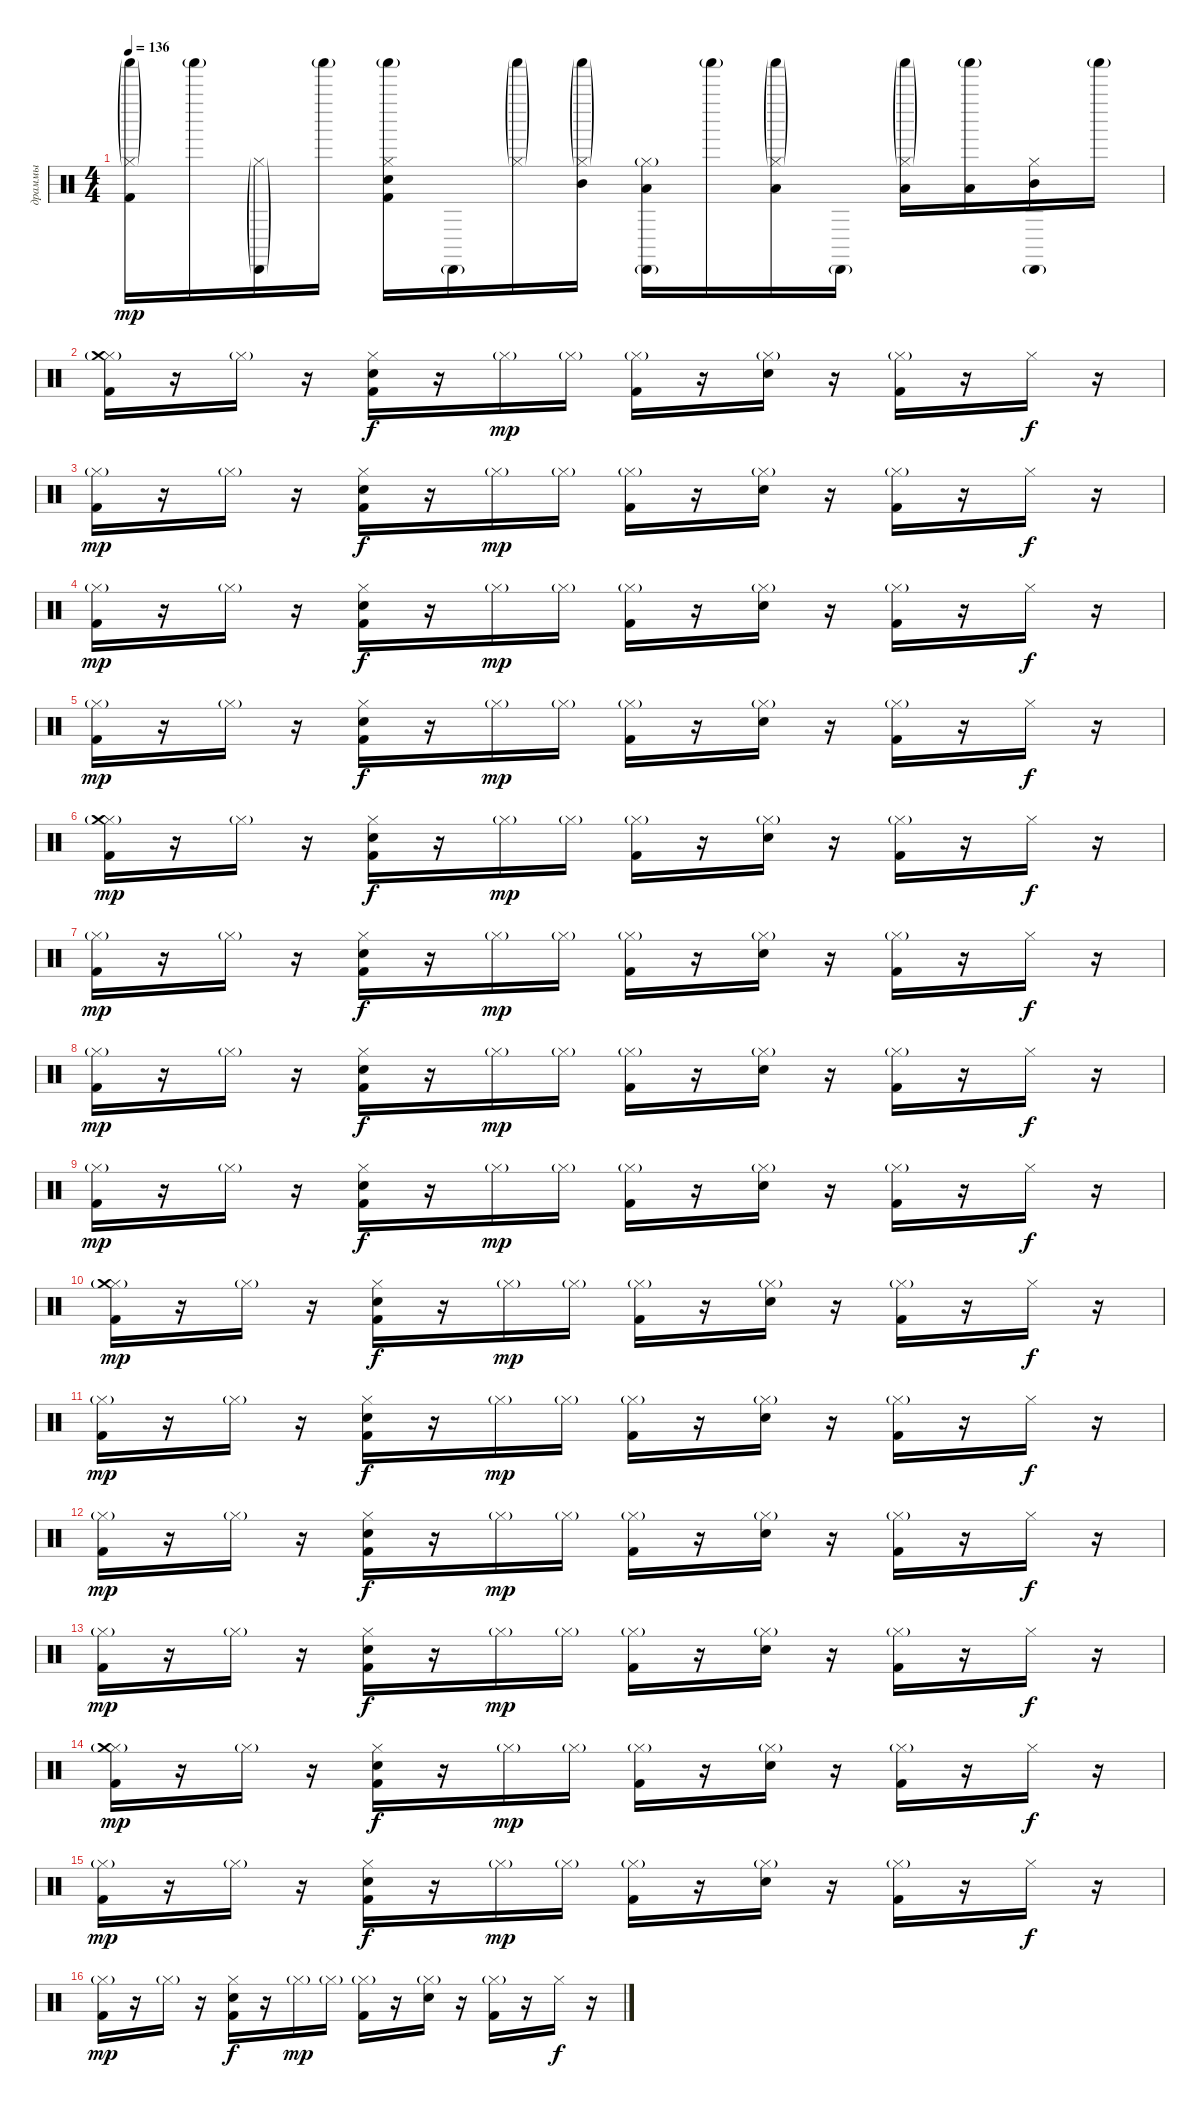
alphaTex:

\track ("драммы" "драммы") {instrument percussion}
\staff {score}
\articulation defaults
\ts (4 4)
\tempo 136
\clef neutral
\ks c
("Shaker (hit)"{g} "Kick (hit) 2" "Hi-Hat (closed)"{g}).16{dy mp} "Shaker (hit)"{g}.16 ("Cabasa (hit)"{g} "Hi-Hat (closed)"{g}).16 "Shaker (hit)"{g}.16 ("Shaker (hit)"{g} "Snare (hit) 2" "Kick (hit) 2" "Hi-Hat (closed)").16 "Cabasa (hit)"{g}.16 ("Shaker (hit)"{g} "Hi-Hat (closed)"{g}).16 ("Shaker (hit)"{g} "Mid Tom (hit)" "Hi-Hat (closed)"{g}).16 ("Cabasa (hit)"{g} "Low Tom (hit)" "Hi-Hat (closed)"{g}).16 "Shaker (hit)"{g}.16 ("Shaker (hit)"{g} "Low Tom (hit)" "Hi-Hat (closed)"{g}).16 "Cabasa (hit)"{g}.16 ("Shaker (hit)"{g} "Low Tom (hit)" "Hi-Hat (closed)"{g}).16 ("Shaker (hit)"{g} "Low Tom (hit)").16 ("Cabasa (hit)"{g} "Mid Tom (hit)" "Hi-Hat (closed)").16 "Shaker (hit)"{g}.16 |
("Kick (hit) 2" "Hi-Hat (closed)"{g} "Crash medium (hit)").16 r.16 "Hi-Hat (closed)"{g}.16 r.16 ("Snare (hit) 2" "Kick (hit) 2" "Hi-Hat (closed)").16{dy f} r.16 "Hi-Hat (closed)"{g}.16{dy mp} "Hi-Hat (closed)"{g}.16 ("Kick (hit) 2" "Hi-Hat (closed)"{g}).16 r.16 ("Snare (hit) 2" "Hi-Hat (closed)"{g}).16 r.16 ("Kick (hit) 2" "Hi-Hat (closed)"{g}).16 r.16 "Hi-Hat (closed)".16{dy f} r.16 |
("Kick (hit) 2" "Hi-Hat (closed)"{g}).16{dy mp} r.16 "Hi-Hat (closed)"{g}.16 r.16 ("Snare (hit) 2" "Kick (hit) 2" "Hi-Hat (closed)").16{dy f} r.16 "Hi-Hat (closed)"{g}.16{dy mp} "Hi-Hat (closed)"{g}.16 ("Kick (hit) 2" "Hi-Hat (closed)"{g}).16 r.16 ("Snare (hit) 2" "Hi-Hat (closed)"{g}).16 r.16 ("Kick (hit) 2" "Hi-Hat (closed)"{g}).16 r.16 "Hi-Hat (closed)".16{dy f} r.16 |
("Kick (hit) 2" "Hi-Hat (closed)"{g}).16{dy mp} r.16 "Hi-Hat (closed)"{g}.16 r.16 ("Snare (hit) 2" "Kick (hit) 2" "Hi-Hat (closed)").16{dy f} r.16 "Hi-Hat (closed)"{g}.16{dy mp} "Hi-Hat (closed)"{g}.16 ("Kick (hit) 2" "Hi-Hat (closed)"{g}).16 r.16 ("Snare (hit) 2" "Hi-Hat (closed)"{g}).16 r.16 ("Kick (hit) 2" "Hi-Hat (closed)"{g}).16 r.16 "Hi-Hat (closed)".16{dy f} r.16 |
("Kick (hit) 2" "Hi-Hat (closed)"{g}).16{dy mp} r.16 "Hi-Hat (closed)"{g}.16 r.16 ("Snare (hit) 2" "Kick (hit) 2" "Hi-Hat (closed)").16{dy f} r.16 "Hi-Hat (closed)"{g}.16{dy mp} "Hi-Hat (closed)"{g}.16 ("Kick (hit) 2" "Hi-Hat (closed)"{g}).16 r.16 ("Snare (hit) 2" "Hi-Hat (closed)"{g}).16 r.16 ("Kick (hit) 2" "Hi-Hat (closed)"{g}).16 r.16 "Hi-Hat (closed)".16{dy f} r.16 |
("Kick (hit) 2" "Hi-Hat (closed)"{g} "Crash medium (hit)").16{dy mp} r.16 "Hi-Hat (closed)"{g}.16 r.16 ("Snare (hit) 2" "Kick (hit) 2" "Hi-Hat (closed)").16{dy f} r.16 "Hi-Hat (closed)"{g}.16{dy mp} "Hi-Hat (closed)"{g}.16 ("Kick (hit) 2" "Hi-Hat (closed)"{g}).16 r.16 ("Snare (hit) 2" "Hi-Hat (closed)"{g}).16 r.16 ("Kick (hit) 2" "Hi-Hat (closed)"{g}).16 r.16 "Hi-Hat (closed)".16{dy f} r.16 |
("Kick (hit) 2" "Hi-Hat (closed)"{g}).16{dy mp} r.16 "Hi-Hat (closed)"{g}.16 r.16 ("Snare (hit) 2" "Kick (hit) 2" "Hi-Hat (closed)").16{dy f} r.16 "Hi-Hat (closed)"{g}.16{dy mp} "Hi-Hat (closed)"{g}.16 ("Kick (hit) 2" "Hi-Hat (closed)"{g}).16 r.16 ("Snare (hit) 2" "Hi-Hat (closed)"{g}).16 r.16 ("Kick (hit) 2" "Hi-Hat (closed)"{g}).16 r.16 "Hi-Hat (closed)".16{dy f} r.16 |
("Kick (hit) 2" "Hi-Hat (closed)"{g}).16{dy mp} r.16 "Hi-Hat (closed)"{g}.16 r.16 ("Snare (hit) 2" "Kick (hit) 2" "Hi-Hat (closed)").16{dy f} r.16 "Hi-Hat (closed)"{g}.16{dy mp} "Hi-Hat (closed)"{g}.16 ("Kick (hit) 2" "Hi-Hat (closed)"{g}).16 r.16 ("Snare (hit) 2" "Hi-Hat (closed)"{g}).16 r.16 ("Kick (hit) 2" "Hi-Hat (closed)"{g}).16 r.16 "Hi-Hat (closed)".16{dy f} r.16 |
("Kick (hit) 2" "Hi-Hat (closed)"{g}).16{dy mp} r.16 "Hi-Hat (closed)"{g}.16 r.16 ("Snare (hit) 2" "Kick (hit) 2" "Hi-Hat (closed)").16{dy f} r.16 "Hi-Hat (closed)"{g}.16{dy mp} "Hi-Hat (closed)"{g}.16 ("Kick (hit) 2" "Hi-Hat (closed)"{g}).16 r.16 ("Snare (hit) 2" "Hi-Hat (closed)"{g}).16 r.16 ("Kick (hit) 2" "Hi-Hat (closed)"{g}).16 r.16 "Hi-Hat (closed)".16{dy f} r.16 |
("Kick (hit) 2" "Hi-Hat (closed)"{g} "Crash medium (hit)").16{dy mp} r.16 "Hi-Hat (closed)"{g}.16 r.16 ("Snare (hit) 2" "Kick (hit) 2" "Hi-Hat (closed)").16{dy f} r.16 "Hi-Hat (closed)"{g}.16{dy mp} "Hi-Hat (closed)"{g}.16 ("Kick (hit) 2" "Hi-Hat (closed)"{g}).16 r.16 ("Snare (hit) 2" "Hi-Hat (closed)"{g}).16 r.16 ("Kick (hit) 2" "Hi-Hat (closed)"{g}).16 r.16 "Hi-Hat (closed)".16{dy f} r.16 |
("Kick (hit) 2" "Hi-Hat (closed)"{g}).16{dy mp} r.16 "Hi-Hat (closed)"{g}.16 r.16 ("Snare (hit) 2" "Kick (hit) 2" "Hi-Hat (closed)").16{dy f} r.16 "Hi-Hat (closed)"{g}.16{dy mp} "Hi-Hat (closed)"{g}.16 ("Kick (hit) 2" "Hi-Hat (closed)"{g}).16 r.16 ("Snare (hit) 2" "Hi-Hat (closed)"{g}).16 r.16 ("Kick (hit) 2" "Hi-Hat (closed)"{g}).16 r.16 "Hi-Hat (closed)".16{dy f} r.16 |
("Kick (hit) 2" "Hi-Hat (closed)"{g}).16{dy mp} r.16 "Hi-Hat (closed)"{g}.16 r.16 ("Snare (hit) 2" "Kick (hit) 2" "Hi-Hat (closed)").16{dy f} r.16 "Hi-Hat (closed)"{g}.16{dy mp} "Hi-Hat (closed)"{g}.16 ("Kick (hit) 2" "Hi-Hat (closed)"{g}).16 r.16 ("Snare (hit) 2" "Hi-Hat (closed)"{g}).16 r.16 ("Kick (hit) 2" "Hi-Hat (closed)"{g}).16 r.16 "Hi-Hat (closed)".16{dy f} r.16 |
("Kick (hit) 2" "Hi-Hat (closed)"{g}).16{dy mp} r.16 "Hi-Hat (closed)"{g}.16 r.16 ("Snare (hit) 2" "Kick (hit) 2" "Hi-Hat (closed)").16{dy f} r.16 "Hi-Hat (closed)"{g}.16{dy mp} "Hi-Hat (closed)"{g}.16 ("Kick (hit) 2" "Hi-Hat (closed)"{g}).16 r.16 ("Snare (hit) 2" "Hi-Hat (closed)"{g}).16 r.16 ("Kick (hit) 2" "Hi-Hat (closed)"{g}).16 r.16 "Hi-Hat (closed)".16{dy f} r.16 |
("Kick (hit) 2" "Hi-Hat (closed)"{g} "Crash medium (hit)").16{dy mp} r.16 "Hi-Hat (closed)"{g}.16 r.16 ("Snare (hit) 2" "Kick (hit) 2" "Hi-Hat (closed)").16{dy f} r.16 "Hi-Hat (closed)"{g}.16{dy mp} "Hi-Hat (closed)"{g}.16 ("Kick (hit) 2" "Hi-Hat (closed)"{g}).16 r.16 ("Snare (hit) 2" "Hi-Hat (closed)"{g}).16 r.16 ("Kick (hit) 2" "Hi-Hat (closed)"{g}).16 r.16 "Hi-Hat (closed)".16{dy f} r.16 |
("Kick (hit) 2" "Hi-Hat (closed)"{g}).16{dy mp} r.16 "Hi-Hat (closed)"{g}.16 r.16 ("Snare (hit) 2" "Kick (hit) 2" "Hi-Hat (closed)").16{dy f} r.16 "Hi-Hat (closed)"{g}.16{dy mp} "Hi-Hat (closed)"{g}.16 ("Kick (hit) 2" "Hi-Hat (closed)"{g}).16 r.16 ("Snare (hit) 2" "Hi-Hat (closed)"{g}).16 r.16 ("Kick (hit) 2" "Hi-Hat (closed)"{g}).16 r.16 "Hi-Hat (closed)".16{dy f} r.16 |
("Kick (hit) 2" "Hi-Hat (closed)"{g}).16{dy mp} r.16 "Hi-Hat (closed)"{g}.16 r.16 ("Snare (hit) 2" "Kick (hit) 2" "Hi-Hat (closed)").16{dy f} r.16 "Hi-Hat (closed)"{g}.16{dy mp} "Hi-Hat (closed)"{g}.16 ("Kick (hit) 2" "Hi-Hat (closed)"{g}).16 r.16 ("Snare (hit) 2" "Hi-Hat (closed)"{g}).16 r.16 ("Kick (hit) 2" "Hi-Hat (closed)"{g}).16 r.16 "Hi-Hat (closed)".16{dy f} r.16
